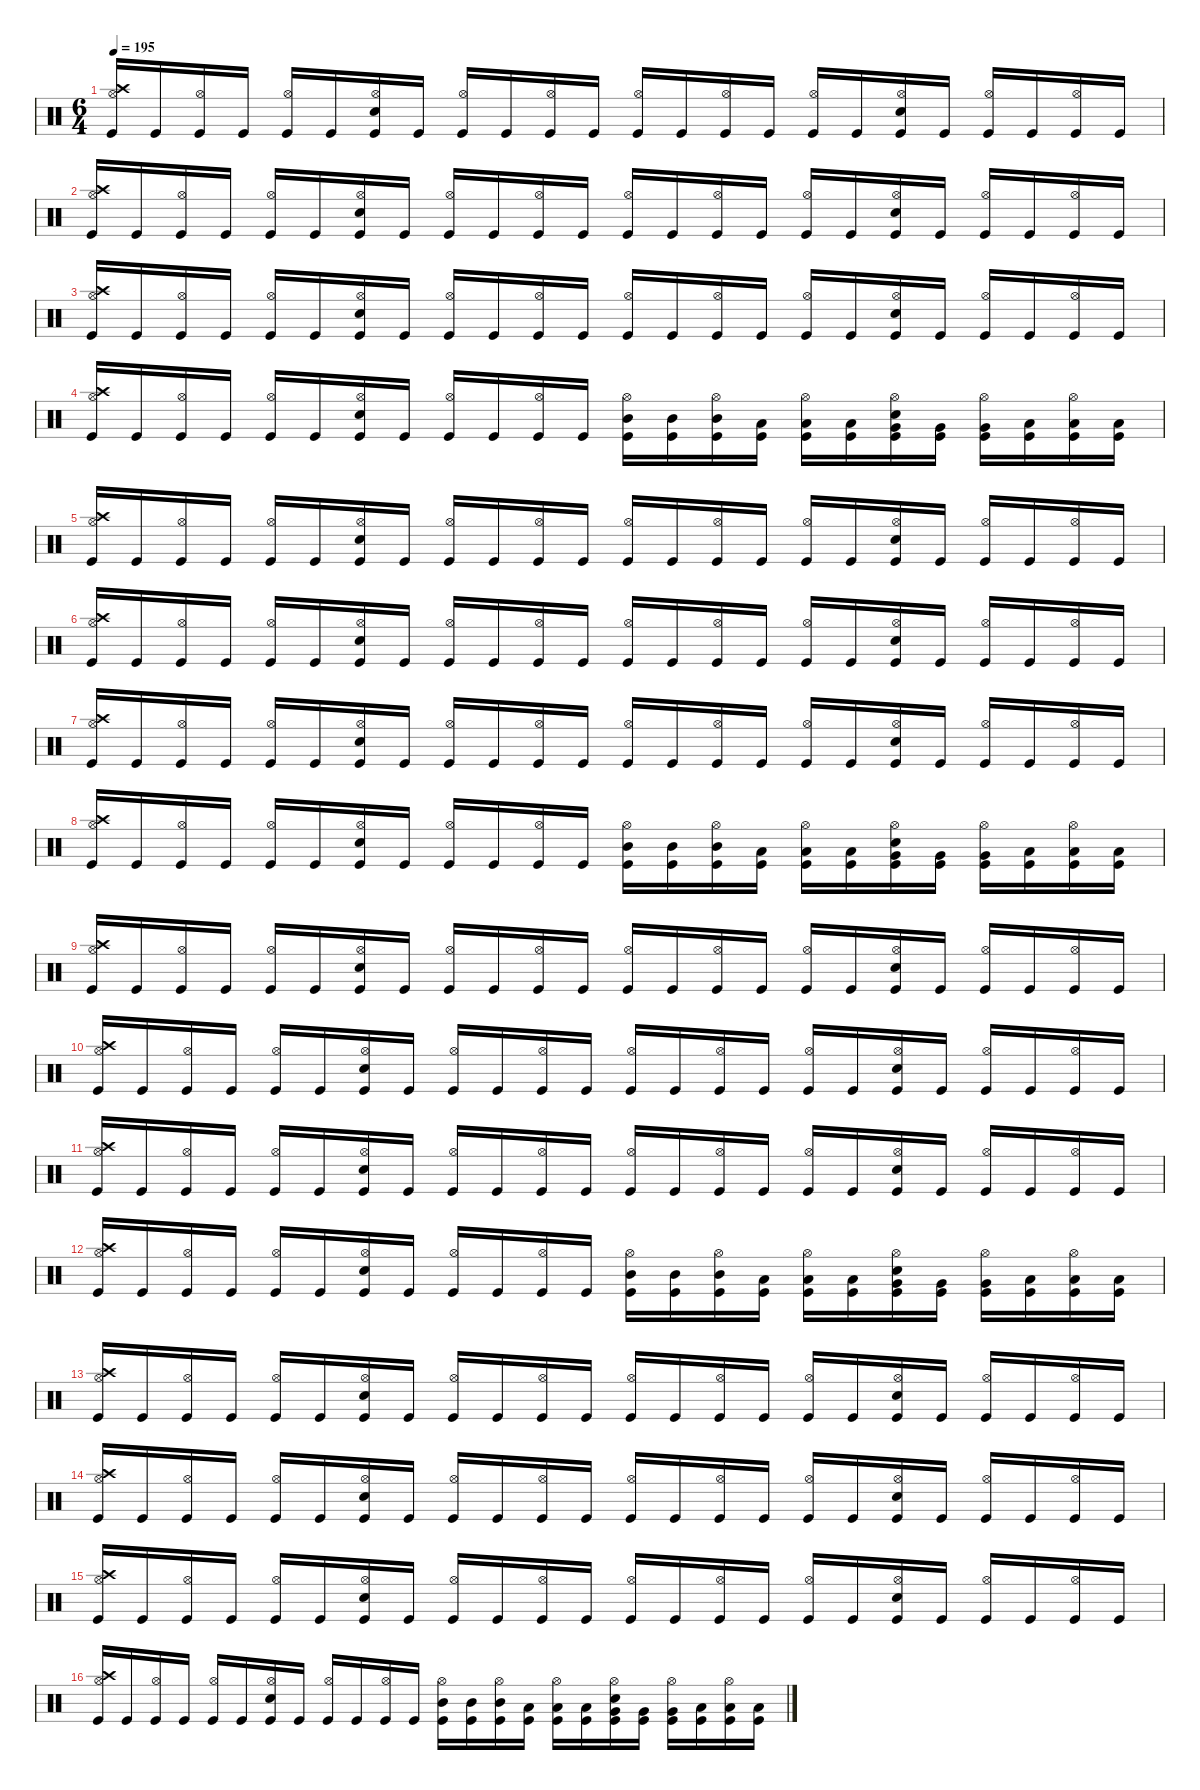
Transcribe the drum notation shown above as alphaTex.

\defaultSystemsLayout 4
\hideDynamics
\bracketExtendMode nobrackets
\singleTrackTrackNamePolicy hidden
\multiTrackTrackNamePolicy hidden
\firstSystemTrackNameMode fullname
\firstSystemTrackNameOrientation horizontal
\otherSystemsTrackNameOrientation horizontal
\track ("Percussion" "drm.") {instrument percussion}
\staff {score}
\articulation defaults
\ts (6 4)
\tempo 195
\clef neutral
\ks c
("Crash high (hit)" "Hi-Hat (open)" "Kick (hit)").16{dy f beam Up} "Kick (hit)".16{beam Up} ("Hi-Hat (open)" "Kick (hit)").16{beam Up} "Kick (hit)".16{beam Up} ("Hi-Hat (open)" "Kick (hit)").16{beam Up} "Kick (hit)".16{beam Up} ("Snare (hit) 2" "Hi-Hat (open)" "Kick (hit)").16{beam Up} "Kick (hit)".16{beam Up} ("Hi-Hat (open)" "Kick (hit)").16{beam Up} "Kick (hit)".16{beam Up} ("Hi-Hat (open)" "Kick (hit)").16{beam Up} "Kick (hit)".16{beam Up} ("Hi-Hat (open)" "Kick (hit)").16{beam Up} "Kick (hit)".16{beam Up} ("Hi-Hat (open)" "Kick (hit)").16{beam Up} "Kick (hit)".16{beam Up} ("Hi-Hat (open)" "Kick (hit)").16{beam Up} "Kick (hit)".16{beam Up} ("Snare (hit) 2" "Hi-Hat (open)" "Kick (hit)").16{beam Up} "Kick (hit)".16{beam Up} ("Hi-Hat (open)" "Kick (hit)").16{beam Up} "Kick (hit)".16{beam Up} ("Hi-Hat (open)" "Kick (hit)").16{beam Up} "Kick (hit)".16{beam Up} |
("Crash high (hit)" "Hi-Hat (open)" "Kick (hit)").16{beam Up} "Kick (hit)".16{beam Up} ("Hi-Hat (open)" "Kick (hit)").16{beam Up} "Kick (hit)".16{beam Up} ("Hi-Hat (open)" "Kick (hit)").16{beam Up} "Kick (hit)".16{beam Up} ("Snare (hit) 2" "Hi-Hat (open)" "Kick (hit)").16{beam Up} "Kick (hit)".16{beam Up} ("Hi-Hat (open)" "Kick (hit)").16{beam Up} "Kick (hit)".16{beam Up} ("Hi-Hat (open)" "Kick (hit)").16{beam Up} "Kick (hit)".16{beam Up} ("Hi-Hat (open)" "Kick (hit)").16{beam Up} "Kick (hit)".16{beam Up} ("Hi-Hat (open)" "Kick (hit)").16{beam Up} "Kick (hit)".16{beam Up} ("Hi-Hat (open)" "Kick (hit)").16{beam Up} "Kick (hit)".16{beam Up} ("Snare (hit) 2" "Hi-Hat (open)" "Kick (hit)").16{beam Up} "Kick (hit)".16{beam Up} ("Hi-Hat (open)" "Kick (hit)").16{beam Up} "Kick (hit)".16{beam Up} ("Hi-Hat (open)" "Kick (hit)").16{beam Up} "Kick (hit)".16{beam Up} |
("Crash high (hit)" "Hi-Hat (open)" "Kick (hit)").16{beam Up} "Kick (hit)".16{beam Up} ("Hi-Hat (open)" "Kick (hit)").16{beam Up} "Kick (hit)".16{beam Up} ("Hi-Hat (open)" "Kick (hit)").16{beam Up} "Kick (hit)".16{beam Up} ("Snare (hit) 2" "Hi-Hat (open)" "Kick (hit)").16{beam Up} "Kick (hit)".16{beam Up} ("Hi-Hat (open)" "Kick (hit)").16{beam Up} "Kick (hit)".16{beam Up} ("Hi-Hat (open)" "Kick (hit)").16{beam Up} "Kick (hit)".16{beam Up} ("Hi-Hat (open)" "Kick (hit)").16{beam Up} "Kick (hit)".16{beam Up} ("Hi-Hat (open)" "Kick (hit)").16{beam Up} "Kick (hit)".16{beam Up} ("Hi-Hat (open)" "Kick (hit)").16{beam Up} "Kick (hit)".16{beam Up} ("Snare (hit) 2" "Hi-Hat (open)" "Kick (hit)").16{beam Up} "Kick (hit)".16{beam Up} ("Hi-Hat (open)" "Kick (hit)").16{beam Up} "Kick (hit)".16{beam Up} ("Hi-Hat (open)" "Kick (hit)").16{beam Up} "Kick (hit)".16{beam Up} |
("Crash high (hit)" "Hi-Hat (open)" "Kick (hit)").16{beam Up} "Kick (hit)".16{beam Up} ("Hi-Hat (open)" "Kick (hit)").16{beam Up} "Kick (hit)".16{beam Up} ("Hi-Hat (open)" "Kick (hit)").16{beam Up} "Kick (hit)".16{beam Up} ("Snare (hit) 2" "Hi-Hat (open)" "Kick (hit)").16{beam Up} "Kick (hit)".16{beam Up} ("Hi-Hat (open)" "Kick (hit)").16{beam Up} "Kick (hit)".16{beam Up} ("Hi-Hat (open)" "Kick (hit)").16{beam Up} "Kick (hit)".16{beam Up} ("Hi-Hat (open)" "Mid Tom (hit)" "Kick (hit)").16{beam Down} ("Mid Tom (hit)" "Kick (hit)").16{beam Down} ("Hi-Hat (open)" "Mid Tom (hit)" "Kick (hit)").16{beam Down} ("Low Tom (hit)" "Kick (hit)").16{beam Down} ("Hi-Hat (open)" "Low Tom (hit)" "Kick (hit)").16{beam Down} ("Low Tom (hit)" "Kick (hit)").16{beam Down} ("Snare (hit) 2" "Hi-Hat (open)" "Very Low Tom (hit)" "Kick (hit)").16{beam Down} ("Very Low Tom (hit)" "Kick (hit)").16{beam Down} ("Hi-Hat (open)" "Very Low Tom (hit)" "Kick (hit)").16{beam Down} ("Low Floor Tom (hit)" "Kick (hit)").16{beam Down} ("Hi-Hat (open)" "Low Floor Tom (hit)" "Kick (hit)").16{beam Down} ("Low Floor Tom (hit)" "Kick (hit)").16{beam Down} |
("Crash high (hit)" "Hi-Hat (open)" "Kick (hit)").16{beam Up} "Kick (hit)".16{beam Up} ("Hi-Hat (open)" "Kick (hit)").16{beam Up} "Kick (hit)".16{beam Up} ("Hi-Hat (open)" "Kick (hit)").16{beam Up} "Kick (hit)".16{beam Up} ("Snare (hit) 2" "Hi-Hat (open)" "Kick (hit)").16{beam Up} "Kick (hit)".16{beam Up} ("Hi-Hat (open)" "Kick (hit)").16{beam Up} "Kick (hit)".16{beam Up} ("Hi-Hat (open)" "Kick (hit)").16{beam Up} "Kick (hit)".16{beam Up} ("Hi-Hat (open)" "Kick (hit)").16{beam Up} "Kick (hit)".16{beam Up} ("Hi-Hat (open)" "Kick (hit)").16{beam Up} "Kick (hit)".16{beam Up} ("Hi-Hat (open)" "Kick (hit)").16{beam Up} "Kick (hit)".16{beam Up} ("Snare (hit) 2" "Hi-Hat (open)" "Kick (hit)").16{beam Up} "Kick (hit)".16{beam Up} ("Hi-Hat (open)" "Kick (hit)").16{beam Up} "Kick (hit)".16{beam Up} ("Hi-Hat (open)" "Kick (hit)").16{beam Up} "Kick (hit)".16{beam Up} |
("Crash high (hit)" "Hi-Hat (open)" "Kick (hit)").16{beam Up} "Kick (hit)".16{beam Up} ("Hi-Hat (open)" "Kick (hit)").16{beam Up} "Kick (hit)".16{beam Up} ("Hi-Hat (open)" "Kick (hit)").16{beam Up} "Kick (hit)".16{beam Up} ("Snare (hit) 2" "Hi-Hat (open)" "Kick (hit)").16{beam Up} "Kick (hit)".16{beam Up} ("Hi-Hat (open)" "Kick (hit)").16{beam Up} "Kick (hit)".16{beam Up} ("Hi-Hat (open)" "Kick (hit)").16{beam Up} "Kick (hit)".16{beam Up} ("Hi-Hat (open)" "Kick (hit)").16{beam Up} "Kick (hit)".16{beam Up} ("Hi-Hat (open)" "Kick (hit)").16{beam Up} "Kick (hit)".16{beam Up} ("Hi-Hat (open)" "Kick (hit)").16{beam Up} "Kick (hit)".16{beam Up} ("Snare (hit) 2" "Hi-Hat (open)" "Kick (hit)").16{beam Up} "Kick (hit)".16{beam Up} ("Hi-Hat (open)" "Kick (hit)").16{beam Up} "Kick (hit)".16{beam Up} ("Hi-Hat (open)" "Kick (hit)").16{beam Up} "Kick (hit)".16{beam Up} |
("Crash high (hit)" "Hi-Hat (open)" "Kick (hit)").16{beam Up} "Kick (hit)".16{beam Up} ("Hi-Hat (open)" "Kick (hit)").16{beam Up} "Kick (hit)".16{beam Up} ("Hi-Hat (open)" "Kick (hit)").16{beam Up} "Kick (hit)".16{beam Up} ("Snare (hit) 2" "Hi-Hat (open)" "Kick (hit)").16{beam Up} "Kick (hit)".16{beam Up} ("Hi-Hat (open)" "Kick (hit)").16{beam Up} "Kick (hit)".16{beam Up} ("Hi-Hat (open)" "Kick (hit)").16{beam Up} "Kick (hit)".16{beam Up} ("Hi-Hat (open)" "Kick (hit)").16{beam Up} "Kick (hit)".16{beam Up} ("Hi-Hat (open)" "Kick (hit)").16{beam Up} "Kick (hit)".16{beam Up} ("Hi-Hat (open)" "Kick (hit)").16{beam Up} "Kick (hit)".16{beam Up} ("Snare (hit) 2" "Hi-Hat (open)" "Kick (hit)").16{beam Up} "Kick (hit)".16{beam Up} ("Hi-Hat (open)" "Kick (hit)").16{beam Up} "Kick (hit)".16{beam Up} ("Hi-Hat (open)" "Kick (hit)").16{beam Up} "Kick (hit)".16{beam Up} |
("Crash high (hit)" "Hi-Hat (open)" "Kick (hit)").16{beam Up} "Kick (hit)".16{beam Up} ("Hi-Hat (open)" "Kick (hit)").16{beam Up} "Kick (hit)".16{beam Up} ("Hi-Hat (open)" "Kick (hit)").16{beam Up} "Kick (hit)".16{beam Up} ("Snare (hit) 2" "Hi-Hat (open)" "Kick (hit)").16{beam Up} "Kick (hit)".16{beam Up} ("Hi-Hat (open)" "Kick (hit)").16{beam Up} "Kick (hit)".16{beam Up} ("Hi-Hat (open)" "Kick (hit)").16{beam Up} "Kick (hit)".16{beam Up} ("Hi-Hat (open)" "Mid Tom (hit)" "Kick (hit)").16{beam Down} ("Mid Tom (hit)" "Kick (hit)").16{beam Down} ("Hi-Hat (open)" "Mid Tom (hit)" "Kick (hit)").16{beam Down} ("Low Tom (hit)" "Kick (hit)").16{beam Down} ("Hi-Hat (open)" "Low Tom (hit)" "Kick (hit)").16{beam Down} ("Low Tom (hit)" "Kick (hit)").16{beam Down} ("Snare (hit) 2" "Hi-Hat (open)" "Very Low Tom (hit)" "Kick (hit)").16{beam Down} ("Very Low Tom (hit)" "Kick (hit)").16{beam Down} ("Hi-Hat (open)" "Very Low Tom (hit)" "Kick (hit)").16{beam Down} ("Low Floor Tom (hit)" "Kick (hit)").16{beam Down} ("Hi-Hat (open)" "Low Floor Tom (hit)" "Kick (hit)").16{beam Down} ("Low Floor Tom (hit)" "Kick (hit)").16{beam Down} |
("Crash high (hit)" "Hi-Hat (open)" "Kick (hit)").16{beam Up} "Kick (hit)".16{beam Up} ("Hi-Hat (open)" "Kick (hit)").16{beam Up} "Kick (hit)".16{beam Up} ("Hi-Hat (open)" "Kick (hit)").16{beam Up} "Kick (hit)".16{beam Up} ("Snare (hit) 2" "Hi-Hat (open)" "Kick (hit)").16{beam Up} "Kick (hit)".16{beam Up} ("Hi-Hat (open)" "Kick (hit)").16{beam Up} "Kick (hit)".16{beam Up} ("Hi-Hat (open)" "Kick (hit)").16{beam Up} "Kick (hit)".16{beam Up} ("Hi-Hat (open)" "Kick (hit)").16{beam Up} "Kick (hit)".16{beam Up} ("Hi-Hat (open)" "Kick (hit)").16{beam Up} "Kick (hit)".16{beam Up} ("Hi-Hat (open)" "Kick (hit)").16{beam Up} "Kick (hit)".16{beam Up} ("Snare (hit) 2" "Hi-Hat (open)" "Kick (hit)").16{beam Up} "Kick (hit)".16{beam Up} ("Hi-Hat (open)" "Kick (hit)").16{beam Up} "Kick (hit)".16{beam Up} ("Hi-Hat (open)" "Kick (hit)").16{beam Up} "Kick (hit)".16{beam Up} |
("Crash high (hit)" "Hi-Hat (open)" "Kick (hit)").16{beam Up} "Kick (hit)".16{beam Up} ("Hi-Hat (open)" "Kick (hit)").16{beam Up} "Kick (hit)".16{beam Up} ("Hi-Hat (open)" "Kick (hit)").16{beam Up} "Kick (hit)".16{beam Up} ("Snare (hit) 2" "Hi-Hat (open)" "Kick (hit)").16{beam Up} "Kick (hit)".16{beam Up} ("Hi-Hat (open)" "Kick (hit)").16{beam Up} "Kick (hit)".16{beam Up} ("Hi-Hat (open)" "Kick (hit)").16{beam Up} "Kick (hit)".16{beam Up} ("Hi-Hat (open)" "Kick (hit)").16{beam Up} "Kick (hit)".16{beam Up} ("Hi-Hat (open)" "Kick (hit)").16{beam Up} "Kick (hit)".16{beam Up} ("Hi-Hat (open)" "Kick (hit)").16{beam Up} "Kick (hit)".16{beam Up} ("Snare (hit) 2" "Hi-Hat (open)" "Kick (hit)").16{beam Up} "Kick (hit)".16{beam Up} ("Hi-Hat (open)" "Kick (hit)").16{beam Up} "Kick (hit)".16{beam Up} ("Hi-Hat (open)" "Kick (hit)").16{beam Up} "Kick (hit)".16{beam Up} |
("Crash high (hit)" "Hi-Hat (open)" "Kick (hit)").16{beam Up} "Kick (hit)".16{beam Up} ("Hi-Hat (open)" "Kick (hit)").16{beam Up} "Kick (hit)".16{beam Up} ("Hi-Hat (open)" "Kick (hit)").16{beam Up} "Kick (hit)".16{beam Up} ("Snare (hit) 2" "Hi-Hat (open)" "Kick (hit)").16{beam Up} "Kick (hit)".16{beam Up} ("Hi-Hat (open)" "Kick (hit)").16{beam Up} "Kick (hit)".16{beam Up} ("Hi-Hat (open)" "Kick (hit)").16{beam Up} "Kick (hit)".16{beam Up} ("Hi-Hat (open)" "Kick (hit)").16{beam Up} "Kick (hit)".16{beam Up} ("Hi-Hat (open)" "Kick (hit)").16{beam Up} "Kick (hit)".16{beam Up} ("Hi-Hat (open)" "Kick (hit)").16{beam Up} "Kick (hit)".16{beam Up} ("Snare (hit) 2" "Hi-Hat (open)" "Kick (hit)").16{beam Up} "Kick (hit)".16{beam Up} ("Hi-Hat (open)" "Kick (hit)").16{beam Up} "Kick (hit)".16{beam Up} ("Hi-Hat (open)" "Kick (hit)").16{beam Up} "Kick (hit)".16{beam Up} |
("Crash high (hit)" "Hi-Hat (open)" "Kick (hit)").16{beam Up} "Kick (hit)".16{beam Up} ("Hi-Hat (open)" "Kick (hit)").16{beam Up} "Kick (hit)".16{beam Up} ("Hi-Hat (open)" "Kick (hit)").16{beam Up} "Kick (hit)".16{beam Up} ("Snare (hit) 2" "Hi-Hat (open)" "Kick (hit)").16{beam Up} "Kick (hit)".16{beam Up} ("Hi-Hat (open)" "Kick (hit)").16{beam Up} "Kick (hit)".16{beam Up} ("Hi-Hat (open)" "Kick (hit)").16{beam Up} "Kick (hit)".16{beam Up} ("Hi-Hat (open)" "Mid Tom (hit)" "Kick (hit)").16{beam Down} ("Mid Tom (hit)" "Kick (hit)").16{beam Down} ("Hi-Hat (open)" "Mid Tom (hit)" "Kick (hit)").16{beam Down} ("Low Tom (hit)" "Kick (hit)").16{beam Down} ("Hi-Hat (open)" "Low Tom (hit)" "Kick (hit)").16{beam Down} ("Low Tom (hit)" "Kick (hit)").16{beam Down} ("Snare (hit) 2" "Hi-Hat (open)" "Very Low Tom (hit)" "Kick (hit)").16{beam Down} ("Very Low Tom (hit)" "Kick (hit)").16{beam Down} ("Hi-Hat (open)" "Very Low Tom (hit)" "Kick (hit)").16{beam Down} ("Low Floor Tom (hit)" "Kick (hit)").16{beam Down} ("Hi-Hat (open)" "Low Floor Tom (hit)" "Kick (hit)").16{beam Down} ("Low Floor Tom (hit)" "Kick (hit)").16{beam Down} |
("Crash high (hit)" "Hi-Hat (open)" "Kick (hit)").16{beam Up} "Kick (hit)".16{beam Up} ("Hi-Hat (open)" "Kick (hit)").16{beam Up} "Kick (hit)".16{beam Up} ("Hi-Hat (open)" "Kick (hit)").16{beam Up} "Kick (hit)".16{beam Up} ("Snare (hit) 2" "Hi-Hat (open)" "Kick (hit)").16{beam Up} "Kick (hit)".16{beam Up} ("Hi-Hat (open)" "Kick (hit)").16{beam Up} "Kick (hit)".16{beam Up} ("Hi-Hat (open)" "Kick (hit)").16{beam Up} "Kick (hit)".16{beam Up} ("Hi-Hat (open)" "Kick (hit)").16{beam Up} "Kick (hit)".16{beam Up} ("Hi-Hat (open)" "Kick (hit)").16{beam Up} "Kick (hit)".16{beam Up} ("Hi-Hat (open)" "Kick (hit)").16{beam Up} "Kick (hit)".16{beam Up} ("Snare (hit) 2" "Hi-Hat (open)" "Kick (hit)").16{beam Up} "Kick (hit)".16{beam Up} ("Hi-Hat (open)" "Kick (hit)").16{beam Up} "Kick (hit)".16{beam Up} ("Hi-Hat (open)" "Kick (hit)").16{beam Up} "Kick (hit)".16{beam Up} |
("Crash high (hit)" "Hi-Hat (open)" "Kick (hit)").16{beam Up} "Kick (hit)".16{beam Up} ("Hi-Hat (open)" "Kick (hit)").16{beam Up} "Kick (hit)".16{beam Up} ("Hi-Hat (open)" "Kick (hit)").16{beam Up} "Kick (hit)".16{beam Up} ("Snare (hit) 2" "Hi-Hat (open)" "Kick (hit)").16{beam Up} "Kick (hit)".16{beam Up} ("Hi-Hat (open)" "Kick (hit)").16{beam Up} "Kick (hit)".16{beam Up} ("Hi-Hat (open)" "Kick (hit)").16{beam Up} "Kick (hit)".16{beam Up} ("Hi-Hat (open)" "Kick (hit)").16{beam Up} "Kick (hit)".16{beam Up} ("Hi-Hat (open)" "Kick (hit)").16{beam Up} "Kick (hit)".16{beam Up} ("Hi-Hat (open)" "Kick (hit)").16{beam Up} "Kick (hit)".16{beam Up} ("Snare (hit) 2" "Hi-Hat (open)" "Kick (hit)").16{beam Up} "Kick (hit)".16{beam Up} ("Hi-Hat (open)" "Kick (hit)").16{beam Up} "Kick (hit)".16{beam Up} ("Hi-Hat (open)" "Kick (hit)").16{beam Up} "Kick (hit)".16{beam Up} |
("Crash high (hit)" "Hi-Hat (open)" "Kick (hit)").16{beam Up} "Kick (hit)".16{beam Up} ("Hi-Hat (open)" "Kick (hit)").16{beam Up} "Kick (hit)".16{beam Up} ("Hi-Hat (open)" "Kick (hit)").16{beam Up} "Kick (hit)".16{beam Up} ("Snare (hit) 2" "Hi-Hat (open)" "Kick (hit)").16{beam Up} "Kick (hit)".16{beam Up} ("Hi-Hat (open)" "Kick (hit)").16{beam Up} "Kick (hit)".16{beam Up} ("Hi-Hat (open)" "Kick (hit)").16{beam Up} "Kick (hit)".16{beam Up} ("Hi-Hat (open)" "Kick (hit)").16{beam Up} "Kick (hit)".16{beam Up} ("Hi-Hat (open)" "Kick (hit)").16{beam Up} "Kick (hit)".16{beam Up} ("Hi-Hat (open)" "Kick (hit)").16{beam Up} "Kick (hit)".16{beam Up} ("Snare (hit) 2" "Hi-Hat (open)" "Kick (hit)").16{beam Up} "Kick (hit)".16{beam Up} ("Hi-Hat (open)" "Kick (hit)").16{beam Up} "Kick (hit)".16{beam Up} ("Hi-Hat (open)" "Kick (hit)").16{beam Up} "Kick (hit)".16{beam Up} |
("Crash high (hit)" "Hi-Hat (open)" "Kick (hit)").16{beam Up} "Kick (hit)".16{beam Up} ("Hi-Hat (open)" "Kick (hit)").16{beam Up} "Kick (hit)".16{beam Up} ("Hi-Hat (open)" "Kick (hit)").16{beam Up} "Kick (hit)".16{beam Up} ("Snare (hit) 2" "Hi-Hat (open)" "Kick (hit)").16{beam Up} "Kick (hit)".16{beam Up} ("Hi-Hat (open)" "Kick (hit)").16{beam Up} "Kick (hit)".16{beam Up} ("Hi-Hat (open)" "Kick (hit)").16{beam Up} "Kick (hit)".16{beam Up} ("Hi-Hat (open)" "Mid Tom (hit)" "Kick (hit)").16{beam Down} ("Mid Tom (hit)" "Kick (hit)").16{beam Down} ("Hi-Hat (open)" "Mid Tom (hit)" "Kick (hit)").16{beam Down} ("Low Tom (hit)" "Kick (hit)").16{beam Down} ("Hi-Hat (open)" "Low Tom (hit)" "Kick (hit)").16{beam Down} ("Low Tom (hit)" "Kick (hit)").16{beam Down} ("Snare (hit) 2" "Hi-Hat (open)" "Very Low Tom (hit)" "Kick (hit)").16{beam Down} ("Very Low Tom (hit)" "Kick (hit)").16{beam Down} ("Hi-Hat (open)" "Very Low Tom (hit)" "Kick (hit)").16{beam Down} ("Low Floor Tom (hit)" "Kick (hit)").16{beam Down} ("Hi-Hat (open)" "Low Floor Tom (hit)" "Kick (hit)").16{beam Down} ("Low Floor Tom (hit)" "Kick (hit)").16{beam Down}
